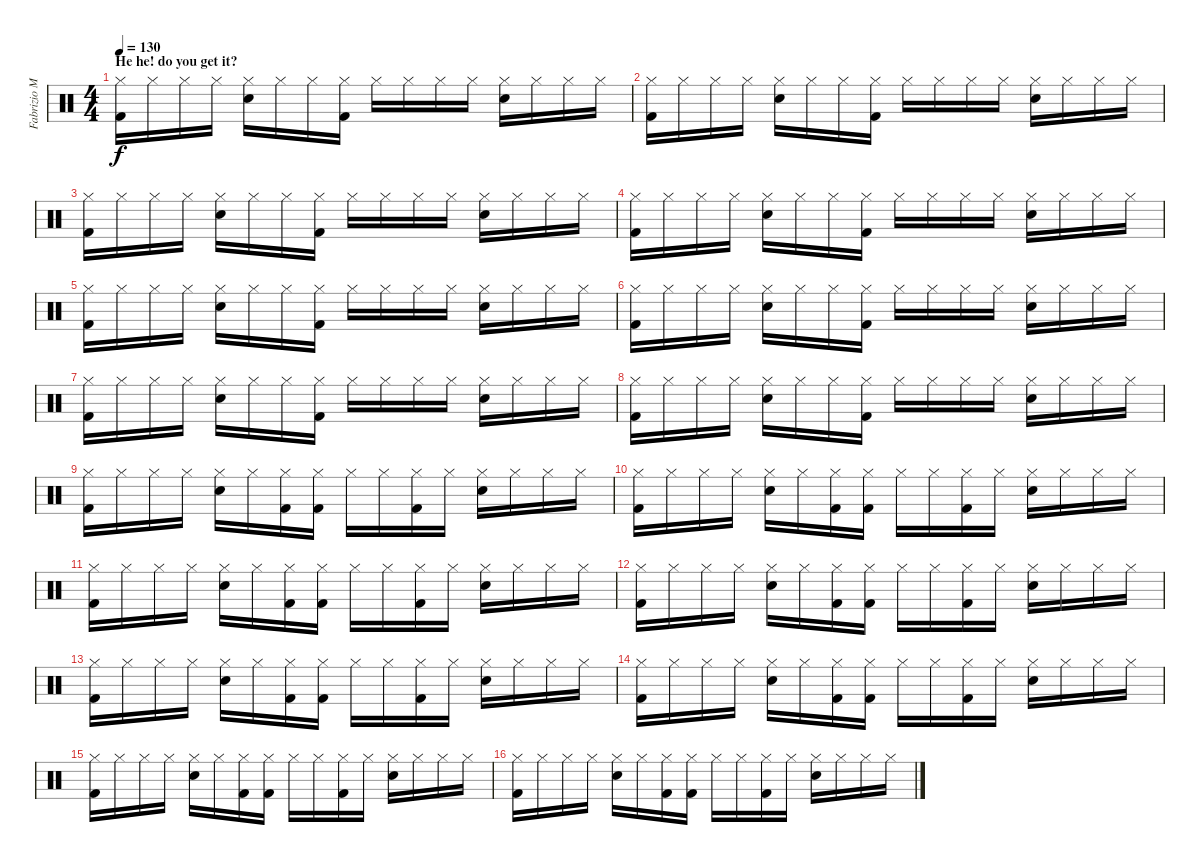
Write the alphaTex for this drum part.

\track ("Fabrizio Moretti" "Fabrizio M") {instrument percussion bank 127}
\staff {score}
\articulation defaults
\ts (4 4)
\section ("" "He he! do you get it?")
\tempo 130
\clef neutral
\ks c
("Hi-Hat (closed)" "Kick (hit) 2").16{dy f} "Hi-Hat (closed)".16 "Hi-Hat (closed)".16 "Hi-Hat (closed)".16 ("Hi-Hat (closed)" "Electric Snare (hit)").16 "Hi-Hat (closed)".16 "Hi-Hat (closed)".16 ("Hi-Hat (closed)" "Kick (hit) 2").16 "Hi-Hat (closed)".16 "Hi-Hat (closed)".16 "Hi-Hat (closed)".16 "Hi-Hat (closed)".16 ("Hi-Hat (closed)" "Electric Snare (hit)").16 "Hi-Hat (closed)".16 "Hi-Hat (closed)".16 "Hi-Hat (closed)".16 |
("Hi-Hat (closed)" "Kick (hit) 2").16 "Hi-Hat (closed)".16 "Hi-Hat (closed)".16 "Hi-Hat (closed)".16 ("Hi-Hat (closed)" "Electric Snare (hit)").16 "Hi-Hat (closed)".16 "Hi-Hat (closed)".16 ("Hi-Hat (closed)" "Kick (hit) 2").16 "Hi-Hat (closed)".16 "Hi-Hat (closed)".16 "Hi-Hat (closed)".16 "Hi-Hat (closed)".16 ("Hi-Hat (closed)" "Electric Snare (hit)").16 "Hi-Hat (closed)".16 "Hi-Hat (closed)".16 "Hi-Hat (closed)".16 |
("Hi-Hat (closed)" "Kick (hit) 2").16 "Hi-Hat (closed)".16 "Hi-Hat (closed)".16 "Hi-Hat (closed)".16 ("Hi-Hat (closed)" "Electric Snare (hit)").16 "Hi-Hat (closed)".16 "Hi-Hat (closed)".16 ("Hi-Hat (closed)" "Kick (hit) 2").16 "Hi-Hat (closed)".16 "Hi-Hat (closed)".16 "Hi-Hat (closed)".16 "Hi-Hat (closed)".16 ("Hi-Hat (closed)" "Electric Snare (hit)").16 "Hi-Hat (closed)".16 "Hi-Hat (closed)".16 "Hi-Hat (closed)".16 |
("Hi-Hat (closed)" "Kick (hit) 2").16 "Hi-Hat (closed)".16 "Hi-Hat (closed)".16 "Hi-Hat (closed)".16 ("Hi-Hat (closed)" "Electric Snare (hit)").16 "Hi-Hat (closed)".16 "Hi-Hat (closed)".16 ("Hi-Hat (closed)" "Kick (hit) 2").16 "Hi-Hat (closed)".16 "Hi-Hat (closed)".16 "Hi-Hat (closed)".16 "Hi-Hat (closed)".16 ("Hi-Hat (closed)" "Electric Snare (hit)").16 "Hi-Hat (closed)".16 "Hi-Hat (closed)".16 "Hi-Hat (closed)".16 |
("Hi-Hat (closed)" "Kick (hit) 2").16 "Hi-Hat (closed)".16 "Hi-Hat (closed)".16 "Hi-Hat (closed)".16 ("Hi-Hat (closed)" "Electric Snare (hit)").16 "Hi-Hat (closed)".16 "Hi-Hat (closed)".16 ("Hi-Hat (closed)" "Kick (hit) 2").16 "Hi-Hat (closed)".16 "Hi-Hat (closed)".16 "Hi-Hat (closed)".16 "Hi-Hat (closed)".16 ("Hi-Hat (closed)" "Electric Snare (hit)").16 "Hi-Hat (closed)".16 "Hi-Hat (closed)".16 "Hi-Hat (closed)".16 |
("Hi-Hat (closed)" "Kick (hit) 2").16 "Hi-Hat (closed)".16 "Hi-Hat (closed)".16 "Hi-Hat (closed)".16 ("Hi-Hat (closed)" "Electric Snare (hit)").16 "Hi-Hat (closed)".16 "Hi-Hat (closed)".16 ("Hi-Hat (closed)" "Kick (hit) 2").16 "Hi-Hat (closed)".16 "Hi-Hat (closed)".16 "Hi-Hat (closed)".16 "Hi-Hat (closed)".16 ("Hi-Hat (closed)" "Electric Snare (hit)").16 "Hi-Hat (closed)".16 "Hi-Hat (closed)".16 "Hi-Hat (closed)".16 |
("Hi-Hat (closed)" "Kick (hit) 2").16 "Hi-Hat (closed)".16 "Hi-Hat (closed)".16 "Hi-Hat (closed)".16 ("Hi-Hat (closed)" "Electric Snare (hit)").16 "Hi-Hat (closed)".16 "Hi-Hat (closed)".16 ("Hi-Hat (closed)" "Kick (hit) 2").16 "Hi-Hat (closed)".16 "Hi-Hat (closed)".16 "Hi-Hat (closed)".16 "Hi-Hat (closed)".16 ("Hi-Hat (closed)" "Electric Snare (hit)").16 "Hi-Hat (closed)".16 "Hi-Hat (closed)".16 "Hi-Hat (closed)".16 |
("Hi-Hat (closed)" "Kick (hit) 2").16 "Hi-Hat (closed)".16 "Hi-Hat (closed)".16 "Hi-Hat (closed)".16 ("Hi-Hat (closed)" "Electric Snare (hit)").16 "Hi-Hat (closed)".16 "Hi-Hat (closed)".16 ("Hi-Hat (closed)" "Kick (hit) 2").16 "Hi-Hat (closed)".16 "Hi-Hat (closed)".16 "Hi-Hat (closed)".16 "Hi-Hat (closed)".16 ("Hi-Hat (closed)" "Electric Snare (hit)").16 "Hi-Hat (closed)".16 "Hi-Hat (closed)".16 "Hi-Hat (closed)".16 |
("Hi-Hat (closed)" "Kick (hit) 2").16 "Hi-Hat (closed)".16 "Hi-Hat (closed)".16 "Hi-Hat (closed)".16 ("Hi-Hat (closed)" "Electric Snare (hit)").16 "Hi-Hat (closed)".16 ("Hi-Hat (closed)" "Kick (hit) 2").16 ("Hi-Hat (closed)" "Kick (hit) 2").16 "Hi-Hat (closed)".16 "Hi-Hat (closed)".16 ("Hi-Hat (closed)" "Kick (hit) 2").16 "Hi-Hat (closed)".16 ("Hi-Hat (closed)" "Electric Snare (hit)").16 "Hi-Hat (closed)".16 "Hi-Hat (closed)".16 "Hi-Hat (closed)".16 |
("Hi-Hat (closed)" "Kick (hit) 2").16 "Hi-Hat (closed)".16 "Hi-Hat (closed)".16 "Hi-Hat (closed)".16 ("Hi-Hat (closed)" "Electric Snare (hit)").16 "Hi-Hat (closed)".16 ("Hi-Hat (closed)" "Kick (hit) 2").16 ("Hi-Hat (closed)" "Kick (hit) 2").16 "Hi-Hat (closed)".16 "Hi-Hat (closed)".16 ("Hi-Hat (closed)" "Kick (hit) 2").16 "Hi-Hat (closed)".16 ("Hi-Hat (closed)" "Electric Snare (hit)").16 "Hi-Hat (closed)".16 "Hi-Hat (closed)".16 "Hi-Hat (closed)".16 |
("Hi-Hat (closed)" "Kick (hit) 2").16 "Hi-Hat (closed)".16 "Hi-Hat (closed)".16 "Hi-Hat (closed)".16 ("Hi-Hat (closed)" "Electric Snare (hit)").16 "Hi-Hat (closed)".16 ("Hi-Hat (closed)" "Kick (hit) 2").16 ("Hi-Hat (closed)" "Kick (hit) 2").16 "Hi-Hat (closed)".16 "Hi-Hat (closed)".16 ("Hi-Hat (closed)" "Kick (hit) 2").16 "Hi-Hat (closed)".16 ("Hi-Hat (closed)" "Electric Snare (hit)").16 "Hi-Hat (closed)".16 "Hi-Hat (closed)".16 "Hi-Hat (closed)".16 |
("Hi-Hat (closed)" "Kick (hit) 2").16 "Hi-Hat (closed)".16 "Hi-Hat (closed)".16 "Hi-Hat (closed)".16 ("Hi-Hat (closed)" "Electric Snare (hit)").16 "Hi-Hat (closed)".16 ("Hi-Hat (closed)" "Kick (hit) 2").16 ("Hi-Hat (closed)" "Kick (hit) 2").16 "Hi-Hat (closed)".16 "Hi-Hat (closed)".16 ("Hi-Hat (closed)" "Kick (hit) 2").16 "Hi-Hat (closed)".16 ("Hi-Hat (closed)" "Electric Snare (hit)").16 "Hi-Hat (closed)".16 "Hi-Hat (closed)".16 "Hi-Hat (closed)".16 |
("Hi-Hat (closed)" "Kick (hit) 2").16 "Hi-Hat (closed)".16 "Hi-Hat (closed)".16 "Hi-Hat (closed)".16 ("Hi-Hat (closed)" "Electric Snare (hit)").16 "Hi-Hat (closed)".16 ("Hi-Hat (closed)" "Kick (hit) 2").16 ("Hi-Hat (closed)" "Kick (hit) 2").16 "Hi-Hat (closed)".16 "Hi-Hat (closed)".16 ("Hi-Hat (closed)" "Kick (hit) 2").16 "Hi-Hat (closed)".16 ("Hi-Hat (closed)" "Electric Snare (hit)").16 "Hi-Hat (closed)".16 "Hi-Hat (closed)".16 "Hi-Hat (closed)".16 |
("Hi-Hat (closed)" "Kick (hit) 2").16 "Hi-Hat (closed)".16 "Hi-Hat (closed)".16 "Hi-Hat (closed)".16 ("Hi-Hat (closed)" "Electric Snare (hit)").16 "Hi-Hat (closed)".16 ("Hi-Hat (closed)" "Kick (hit) 2").16 ("Hi-Hat (closed)" "Kick (hit) 2").16 "Hi-Hat (closed)".16 "Hi-Hat (closed)".16 ("Hi-Hat (closed)" "Kick (hit) 2").16 "Hi-Hat (closed)".16 ("Hi-Hat (closed)" "Electric Snare (hit)").16 "Hi-Hat (closed)".16 "Hi-Hat (closed)".16 "Hi-Hat (closed)".16 |
("Hi-Hat (closed)" "Kick (hit) 2").16 "Hi-Hat (closed)".16 "Hi-Hat (closed)".16 "Hi-Hat (closed)".16 ("Hi-Hat (closed)" "Electric Snare (hit)").16 "Hi-Hat (closed)".16 ("Hi-Hat (closed)" "Kick (hit) 2").16 ("Hi-Hat (closed)" "Kick (hit) 2").16 "Hi-Hat (closed)".16 "Hi-Hat (closed)".16 ("Hi-Hat (closed)" "Kick (hit) 2").16 "Hi-Hat (closed)".16 ("Hi-Hat (closed)" "Electric Snare (hit)").16 "Hi-Hat (closed)".16 "Hi-Hat (closed)".16 "Hi-Hat (closed)".16 |
("Hi-Hat (closed)" "Kick (hit) 2").16 "Hi-Hat (closed)".16 "Hi-Hat (closed)".16 "Hi-Hat (closed)".16 ("Hi-Hat (closed)" "Electric Snare (hit)").16 "Hi-Hat (closed)".16 ("Hi-Hat (closed)" "Kick (hit) 2").16 ("Hi-Hat (closed)" "Kick (hit) 2").16 "Hi-Hat (closed)".16 "Hi-Hat (closed)".16 ("Hi-Hat (closed)" "Kick (hit) 2").16 "Hi-Hat (closed)".16 ("Hi-Hat (closed)" "Electric Snare (hit)").16 "Hi-Hat (closed)".16 "Hi-Hat (closed)".16 "Hi-Hat (closed)".16
